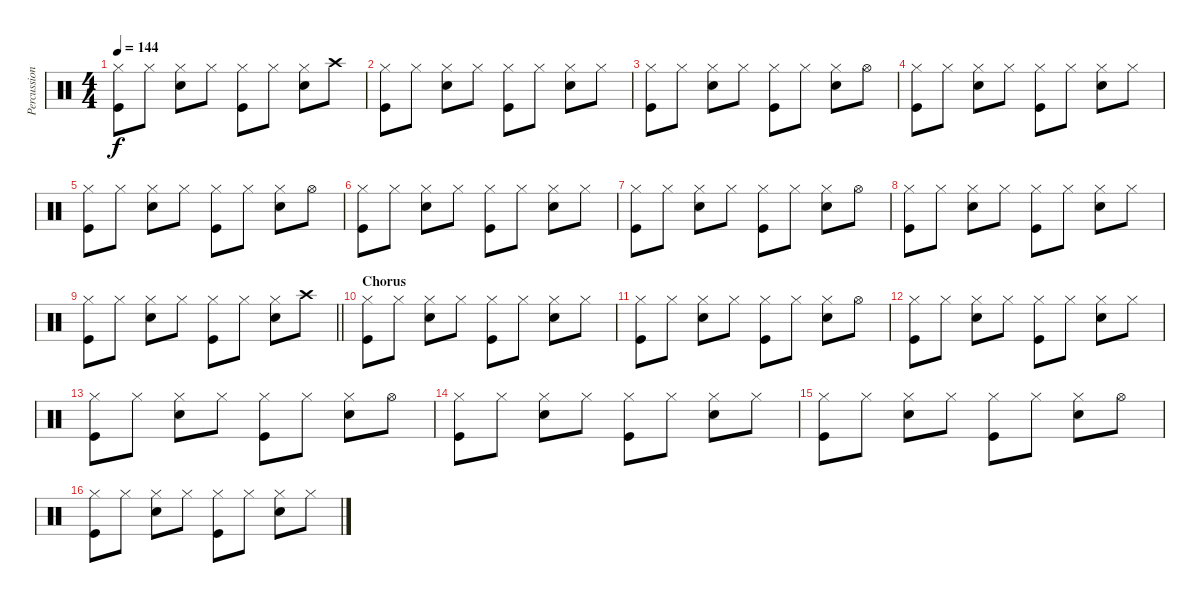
\track ("Percussion" "Percussion") {instrument percussion}
\staff {score}
\articulation defaults
\ts (4 4)
\tempo 144
\clef neutral
\ks c
("Hi-Hat (closed)" "Kick (hit)").8{dy f} "Hi-Hat (closed)".8 ("Hi-Hat (closed)" "Snare (hit) 2").8 "Hi-Hat (closed)".8 ("Hi-Hat (closed)" "Kick (hit)").8 "Hi-Hat (closed)".8 ("Hi-Hat (closed)" "Snare (hit) 2").8 "Crash high (hit)".8 |
("Hi-Hat (closed)" "Kick (hit)").8 "Hi-Hat (closed)".8 ("Hi-Hat (closed)" "Snare (hit) 2").8 "Hi-Hat (closed)".8 ("Hi-Hat (closed)" "Kick (hit)").8 "Hi-Hat (closed)".8 ("Hi-Hat (closed)" "Snare (hit) 2").8 "Hi-Hat (closed)".8 |
("Hi-Hat (closed)" "Kick (hit)").8 "Hi-Hat (closed)".8 ("Hi-Hat (closed)" "Snare (hit) 2").8 "Hi-Hat (closed)".8 ("Hi-Hat (closed)" "Kick (hit)").8 "Hi-Hat (closed)".8 ("Hi-Hat (closed)" "Snare (hit) 2").8 "Hi-Hat (open)".8 |
("Hi-Hat (closed)" "Kick (hit)").8 "Hi-Hat (closed)".8 ("Hi-Hat (closed)" "Snare (hit) 2").8 "Hi-Hat (closed)".8 ("Hi-Hat (closed)" "Kick (hit)").8 "Hi-Hat (closed)".8 ("Hi-Hat (closed)" "Snare (hit) 2").8 "Hi-Hat (closed)".8 |
("Hi-Hat (closed)" "Kick (hit)").8 "Hi-Hat (closed)".8 ("Hi-Hat (closed)" "Snare (hit) 2").8 "Hi-Hat (closed)".8 ("Hi-Hat (closed)" "Kick (hit)").8 "Hi-Hat (closed)".8 ("Hi-Hat (closed)" "Snare (hit) 2").8 "Hi-Hat (open)".8 |
("Hi-Hat (closed)" "Kick (hit)").8 "Hi-Hat (closed)".8 ("Hi-Hat (closed)" "Snare (hit) 2").8 "Hi-Hat (closed)".8 ("Hi-Hat (closed)" "Kick (hit)").8 "Hi-Hat (closed)".8 ("Hi-Hat (closed)" "Snare (hit) 2").8 "Hi-Hat (closed)".8 |
("Hi-Hat (closed)" "Kick (hit)").8 "Hi-Hat (closed)".8 ("Hi-Hat (closed)" "Snare (hit) 2").8 "Hi-Hat (closed)".8 ("Hi-Hat (closed)" "Kick (hit)").8 "Hi-Hat (closed)".8 ("Hi-Hat (closed)" "Snare (hit) 2").8 "Hi-Hat (open)".8 |
("Hi-Hat (closed)" "Kick (hit)").8 "Hi-Hat (closed)".8 ("Hi-Hat (closed)" "Snare (hit) 2").8 "Hi-Hat (closed)".8 ("Hi-Hat (closed)" "Kick (hit)").8 "Hi-Hat (closed)".8 ("Hi-Hat (closed)" "Snare (hit) 2").8 "Hi-Hat (closed)".8 |
\barLineRight lightlight
("Hi-Hat (closed)" "Kick (hit)").8 "Hi-Hat (closed)".8 ("Hi-Hat (closed)" "Snare (hit) 2").8 "Hi-Hat (closed)".8 ("Hi-Hat (closed)" "Kick (hit)").8 "Hi-Hat (closed)".8 ("Hi-Hat (closed)" "Snare (hit) 2").8 "Crash high (hit)".8 |
\section ("" "Chorus")
("Hi-Hat (closed)" "Kick (hit)").8 "Hi-Hat (closed)".8 ("Hi-Hat (closed)" "Snare (hit) 2").8 "Hi-Hat (closed)".8 ("Hi-Hat (closed)" "Kick (hit)").8 "Hi-Hat (closed)".8 ("Hi-Hat (closed)" "Snare (hit) 2").8 "Hi-Hat (closed)".8 |
("Hi-Hat (closed)" "Kick (hit)").8 "Hi-Hat (closed)".8 ("Hi-Hat (closed)" "Snare (hit) 2").8 "Hi-Hat (closed)".8 ("Hi-Hat (closed)" "Kick (hit)").8 "Hi-Hat (closed)".8 ("Hi-Hat (closed)" "Snare (hit) 2").8 "Hi-Hat (open)".8 |
("Hi-Hat (closed)" "Kick (hit)").8 "Hi-Hat (closed)".8 ("Hi-Hat (closed)" "Snare (hit) 2").8 "Hi-Hat (closed)".8 ("Hi-Hat (closed)" "Kick (hit)").8 "Hi-Hat (closed)".8 ("Hi-Hat (closed)" "Snare (hit) 2").8 "Hi-Hat (closed)".8 |
("Hi-Hat (closed)" "Kick (hit)").8 "Hi-Hat (closed)".8 ("Hi-Hat (closed)" "Snare (hit) 2").8 "Hi-Hat (closed)".8 ("Hi-Hat (closed)" "Kick (hit)").8 "Hi-Hat (closed)".8 ("Hi-Hat (closed)" "Snare (hit) 2").8 "Hi-Hat (open)".8 |
("Hi-Hat (closed)" "Kick (hit)").8 "Hi-Hat (closed)".8 ("Hi-Hat (closed)" "Snare (hit) 2").8 "Hi-Hat (closed)".8 ("Hi-Hat (closed)" "Kick (hit)").8 "Hi-Hat (closed)".8 ("Hi-Hat (closed)" "Snare (hit) 2").8 "Hi-Hat (closed)".8 |
("Hi-Hat (closed)" "Kick (hit)").8 "Hi-Hat (closed)".8 ("Hi-Hat (closed)" "Snare (hit) 2").8 "Hi-Hat (closed)".8 ("Hi-Hat (closed)" "Kick (hit)").8 "Hi-Hat (closed)".8 ("Hi-Hat (closed)" "Snare (hit) 2").8 "Hi-Hat (open)".8 |
("Hi-Hat (closed)" "Kick (hit)").8 "Hi-Hat (closed)".8 ("Hi-Hat (closed)" "Snare (hit) 2").8 "Hi-Hat (closed)".8 ("Hi-Hat (closed)" "Kick (hit)").8 "Hi-Hat (closed)".8 ("Hi-Hat (closed)" "Snare (hit) 2").8 "Hi-Hat (closed)".8
